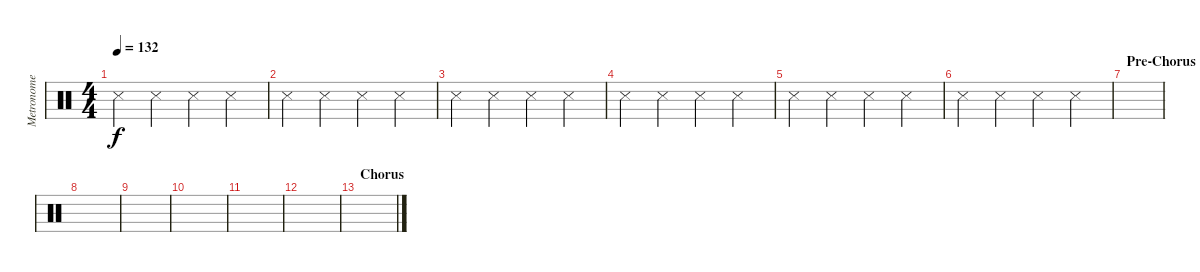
\track ("Metronome" "Metronome") {instrument percussion}
\staff {score}
\articulation defaults
\ts (4 4)
\tempo 132
\clef neutral
\ks c "Metronome (hit)".4{dy f} "Metronome (hit)".4 "Metronome (hit)".4 "Metronome (hit)".4
|
"Metronome (hit)".4 "Metronome (hit)".4 "Metronome (hit)".4 "Metronome (hit)".4 |
"Metronome (hit)".4 "Metronome (hit)".4 "Metronome (hit)".4 "Metronome (hit)".4 |
"Metronome (hit)".4 "Metronome (hit)".4 "Metronome (hit)".4 "Metronome (hit)".4 |
"Metronome (hit)".4 "Metronome (hit)".4 "Metronome (hit)".4 "Metronome (hit)".4 |
"Metronome (hit)".4 "Metronome (hit)".4 "Metronome (hit)".4 "Metronome (hit)".4 |
\section ("" "Pre-Chorus")
|
|
|
|
|
|
\section ("" "Chorus")
